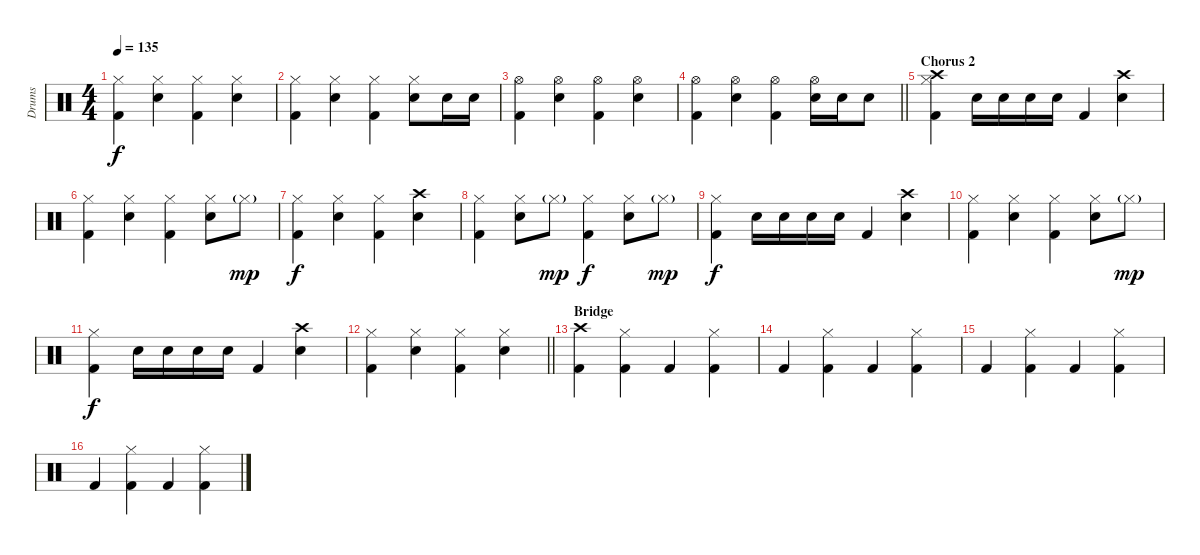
\track ("Drums" "Drums") {instrument percussion}
\staff {score}
\articulation defaults
\ts (4 4)
\tempo 135
\clef neutral
\ks c
("Hi-Hat (closed)" "Kick (hit) 2").4{dy f} ("Hi-Hat (closed)" "Electric Snare (hit)").4 ("Hi-Hat (closed)" "Kick (hit) 2").4 ("Hi-Hat (closed)" "Electric Snare (hit)").4 |
("Hi-Hat (closed)" "Kick (hit) 2").4 ("Hi-Hat (closed)" "Electric Snare (hit)").4 ("Hi-Hat (closed)" "Kick (hit) 2").4 ("Hi-Hat (closed)" "Electric Snare (hit)").8 "Electric Snare (hit)".16 "Electric Snare (hit)".16 |
("Hi-Hat (open)" "Kick (hit) 2").4 ("Hi-Hat (open)" "Electric Snare (hit)").4 ("Hi-Hat (open)" "Kick (hit) 2").4 ("Hi-Hat (open)" "Electric Snare (hit)").4 |
\barLineRight lightlight
("Hi-Hat (open)" "Kick (hit) 2").4 ("Hi-Hat (open)" "Electric Snare (hit)").4 ("Hi-Hat (open)" "Kick (hit) 2").4 ("Hi-Hat (open)" "Electric Snare (hit)").16 "Electric Snare (hit)".16 "Electric Snare (hit)".8 |
\section ("" "Chorus 2")
("Hi-Hat (closed)" "Crash high (hit)" "Kick (hit) 2").4 "Electric Snare (hit)".16 "Electric Snare (hit)".16 "Electric Snare (hit)".16 "Electric Snare (hit)".16 "Kick (hit) 2".4 ("Crash high (hit)" "Electric Snare (hit)").4 |
("Hi-Hat (closed)" "Kick (hit) 2").4 ("Hi-Hat (closed)" "Electric Snare (hit)").4 ("Hi-Hat (closed)" "Kick (hit) 2").4 ("Hi-Hat (closed)" "Electric Snare (hit)").8 "Hi-Hat (closed)"{g}.8{dy mp} |
("Hi-Hat (closed)" "Kick (hit) 2").4{dy f} ("Hi-Hat (closed)" "Electric Snare (hit)").4 ("Hi-Hat (closed)" "Kick (hit) 2").4 ("Crash high (hit)" "Electric Snare (hit)").4 |
("Hi-Hat (closed)" "Kick (hit) 2").4 ("Hi-Hat (closed)" "Electric Snare (hit)").8 "Hi-Hat (closed)"{g}.8{dy mp} ("Hi-Hat (closed)" "Kick (hit) 2").4{dy f} ("Hi-Hat (closed)" "Electric Snare (hit)").8 "Hi-Hat (closed)"{g}.8{dy mp} |
("Hi-Hat (closed)" "Kick (hit) 2").4{dy f} "Electric Snare (hit)".16 "Electric Snare (hit)".16 "Electric Snare (hit)".16 "Electric Snare (hit)".16 "Kick (hit) 2".4 ("Crash high (hit)" "Electric Snare (hit)").4 |
("Hi-Hat (closed)" "Kick (hit) 2").4 ("Hi-Hat (closed)" "Electric Snare (hit)").4 ("Hi-Hat (closed)" "Kick (hit) 2").4 ("Hi-Hat (closed)" "Electric Snare (hit)").8 "Hi-Hat (closed)"{g}.8{dy mp} |
("Hi-Hat (closed)" "Kick (hit) 2").4{dy f} "Electric Snare (hit)".16 "Electric Snare (hit)".16 "Electric Snare (hit)".16 "Electric Snare (hit)".16 "Kick (hit) 2".4 ("Crash high (hit)" "Electric Snare (hit)").4 |
\barLineRight lightlight
("Hi-Hat (closed)" "Kick (hit) 2").4 ("Hi-Hat (closed)" "Electric Snare (hit)").4 ("Hi-Hat (closed)" "Kick (hit) 2").4 ("Hi-Hat (closed)" "Electric Snare (hit)").4 |
\section ("" "Bridge")
("Crash high (hit)" "Kick (hit) 2").4 ("Hi-Hat (closed)" "Kick (hit) 2").4 "Kick (hit) 2".4 ("Hi-Hat (closed)" "Kick (hit) 2").4 |
"Kick (hit) 2".4 ("Hi-Hat (closed)" "Kick (hit) 2").4 "Kick (hit) 2".4 ("Hi-Hat (closed)" "Kick (hit) 2").4 |
"Kick (hit) 2".4 ("Hi-Hat (closed)" "Kick (hit) 2").4 "Kick (hit) 2".4 ("Hi-Hat (closed)" "Kick (hit) 2").4 |
"Kick (hit) 2".4 ("Hi-Hat (closed)" "Kick (hit) 2").4 "Kick (hit) 2".4 ("Hi-Hat (closed)" "Kick (hit) 2").4
